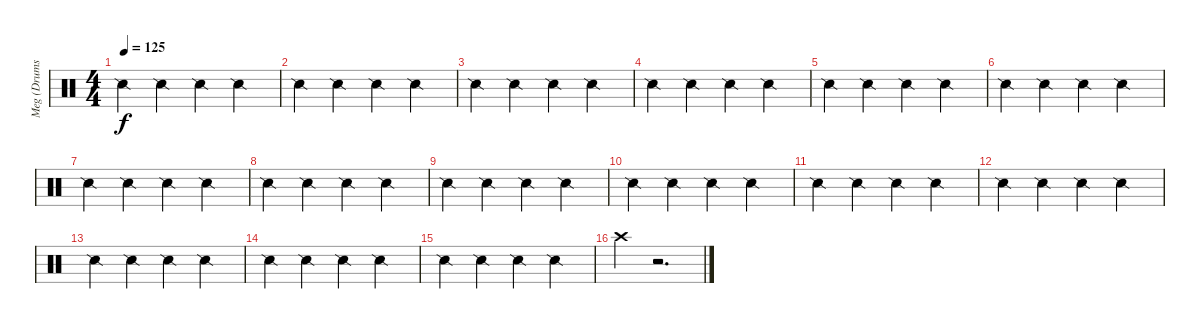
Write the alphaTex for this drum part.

\track ("Meg (Drums)" "Meg (Drums") {instrument percussion}
\staff {score}
\articulation defaults
\ts (4 4)
\tempo 125
\clef neutral
\ks c "Snare (side stick) 2".4{dy f} "Snare (side stick) 2".4 "Snare (side stick) 2".4 "Snare (side stick) 2".4
|
"Snare (side stick) 2".4 "Snare (side stick) 2".4 "Snare (side stick) 2".4 "Snare (side stick) 2".4 |
"Snare (side stick) 2".4 "Snare (side stick) 2".4 "Snare (side stick) 2".4 "Snare (side stick) 2".4 |
"Snare (side stick) 2".4 "Snare (side stick) 2".4 "Snare (side stick) 2".4 "Snare (side stick) 2".4 |
"Snare (side stick) 2".4 "Snare (side stick) 2".4 "Snare (side stick) 2".4 "Snare (side stick) 2".4 |
"Snare (side stick) 2".4 "Snare (side stick) 2".4 "Snare (side stick) 2".4 "Snare (side stick) 2".4 |
"Snare (side stick) 2".4 "Snare (side stick) 2".4 "Snare (side stick) 2".4 "Snare (side stick) 2".4 |
"Snare (side stick) 2".4 "Snare (side stick) 2".4 "Snare (side stick) 2".4 "Snare (side stick) 2".4 |
"Snare (side stick) 2".4 "Snare (side stick) 2".4 "Snare (side stick) 2".4 "Snare (side stick) 2".4 |
"Snare (side stick) 2".4 "Snare (side stick) 2".4 "Snare (side stick) 2".4 "Snare (side stick) 2".4 |
"Snare (side stick) 2".4 "Snare (side stick) 2".4 "Snare (side stick) 2".4 "Snare (side stick) 2".4 |
"Snare (side stick) 2".4 "Snare (side stick) 2".4 "Snare (side stick) 2".4 "Snare (side stick) 2".4 |
"Snare (side stick) 2".4 "Snare (side stick) 2".4 "Snare (side stick) 2".4 "Snare (side stick) 2".4 |
"Snare (side stick) 2".4 "Snare (side stick) 2".4 "Snare (side stick) 2".4 "Snare (side stick) 2".4 |
"Snare (side stick) 2".4 "Snare (side stick) 2".4 "Snare (side stick) 2".4 "Snare (side stick) 2".4 |
"Crash high (hit)".4 r.2{d}
